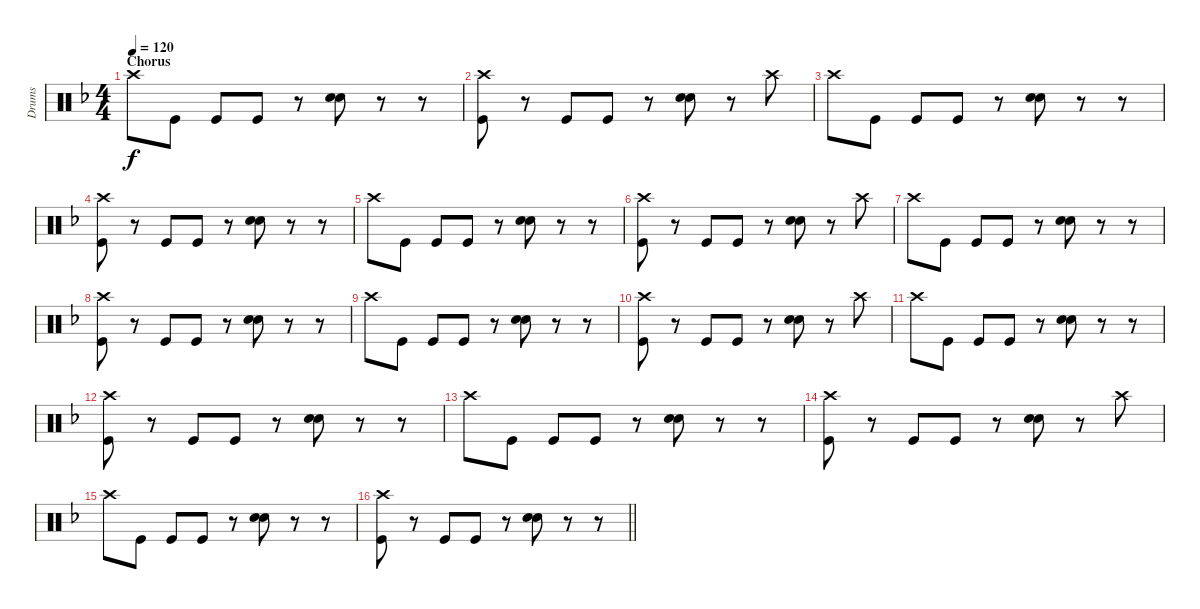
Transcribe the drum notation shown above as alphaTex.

\track ("Drums" "Drums") {instrument percussion}
\staff {score}
\articulation defaults
\ts (4 4)
\section ("" "Chorus")
\tempo 120
\clef neutral
\ks f "Crash high (hit)".8{dy f volume 16} "Kick (hit)".8 "Kick (hit)".8 "Kick (hit)".8
r.8 ("Electric Snare (hit)" "Snare (hit) 2").8 r.8 r.8 |
("Crash high (hit)" "Kick (hit)").8 r.8 "Kick (hit)".8 "Kick (hit)".8 r.8 ("Electric Snare (hit)" "Snare (hit) 2").8 r.8 "Crash high (hit)".8 |
"Crash high (hit)".8 "Kick (hit)".8 "Kick (hit)".8 "Kick (hit)".8 r.8 ("Electric Snare (hit)" "Snare (hit) 2").8 r.8 r.8 |
("Crash high (hit)" "Kick (hit)").8 r.8 "Kick (hit)".8 "Kick (hit)".8 r.8 ("Electric Snare (hit)" "Snare (hit) 2").8 r.8 r.8 |
"Crash high (hit)".8 "Kick (hit)".8 "Kick (hit)".8 "Kick (hit)".8 r.8 ("Electric Snare (hit)" "Snare (hit) 2").8 r.8 r.8 |
("Crash high (hit)" "Kick (hit)").8 r.8 "Kick (hit)".8 "Kick (hit)".8 r.8 ("Electric Snare (hit)" "Snare (hit) 2").8 r.8 "Crash high (hit)".8 |
"Crash high (hit)".8 "Kick (hit)".8 "Kick (hit)".8 "Kick (hit)".8 r.8 ("Electric Snare (hit)" "Snare (hit) 2").8 r.8 r.8 |
("Crash high (hit)" "Kick (hit)").8 r.8 "Kick (hit)".8 "Kick (hit)".8 r.8 ("Electric Snare (hit)" "Snare (hit) 2").8 r.8 r.8 |
"Crash high (hit)".8 "Kick (hit)".8 "Kick (hit)".8 "Kick (hit)".8 r.8 ("Electric Snare (hit)" "Snare (hit) 2").8 r.8 r.8 |
("Crash high (hit)" "Kick (hit)").8 r.8 "Kick (hit)".8 "Kick (hit)".8 r.8 ("Electric Snare (hit)" "Snare (hit) 2").8 r.8 "Crash high (hit)".8 |
"Crash high (hit)".8 "Kick (hit)".8 "Kick (hit)".8 "Kick (hit)".8 r.8 ("Electric Snare (hit)" "Snare (hit) 2").8 r.8 r.8 |
("Crash high (hit)" "Kick (hit)").8 r.8 "Kick (hit)".8 "Kick (hit)".8 r.8 ("Electric Snare (hit)" "Snare (hit) 2").8 r.8 r.8 |
"Crash high (hit)".8 "Kick (hit)".8 "Kick (hit)".8 "Kick (hit)".8 r.8 ("Electric Snare (hit)" "Snare (hit) 2").8 r.8 r.8 |
("Crash high (hit)" "Kick (hit)").8 r.8 "Kick (hit)".8 "Kick (hit)".8 r.8 ("Electric Snare (hit)" "Snare (hit) 2").8 r.8 "Crash high (hit)".8 |
"Crash high (hit)".8 "Kick (hit)".8 "Kick (hit)".8 "Kick (hit)".8 r.8 ("Electric Snare (hit)" "Snare (hit) 2").8 r.8 r.8 |
\barLineRight lightlight
("Crash high (hit)" "Kick (hit)").8 r.8 "Kick (hit)".8 "Kick (hit)".8 r.8 ("Electric Snare (hit)" "Snare (hit) 2").8 r.8 r.8
